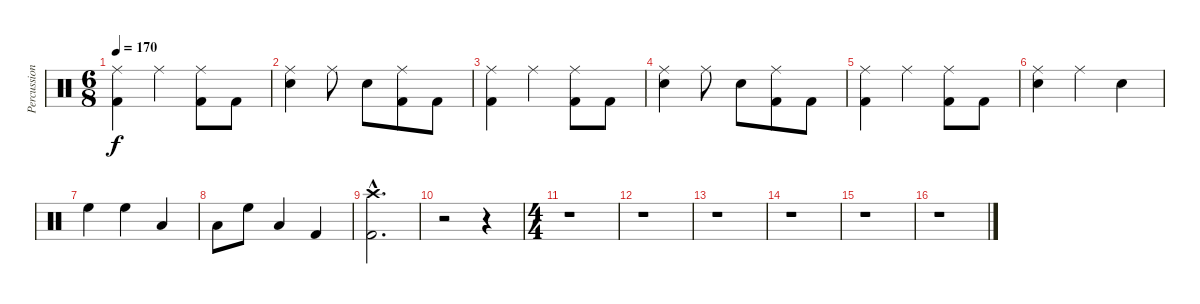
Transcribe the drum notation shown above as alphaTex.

\track ("Percussion" "Percussion") {instrument percussion}
\staff {score}
\articulation defaults
\ts (6 8)
\tempo 170
\clef neutral
\ks c
("Ride (middle)" "Kick (hit) 2").4{dy f} "Ride (middle)".4 ("Ride (middle)" "Kick (hit) 2").8 "Kick (hit) 2".8 |
("Ride (middle)" "Snare (hit) 2").4 "Ride (middle)".8 "Snare (hit) 2".8 ("Ride (middle)" "Kick (hit) 2").8 "Kick (hit) 2".8 |
("Ride (middle)" "Kick (hit) 2").4 "Ride (middle)".4 ("Ride (middle)" "Kick (hit) 2").8 "Kick (hit) 2".8 |
("Ride (middle)" "Snare (hit) 2").4 "Ride (middle)".8 "Snare (hit) 2".8 ("Ride (middle)" "Kick (hit) 2").8 "Kick (hit) 2".8 |
("Ride (middle)" "Kick (hit) 2").4 "Ride (middle)".4 ("Ride (middle)" "Kick (hit) 2").8 "Kick (hit) 2".8 |
("Ride (middle)" "Snare (hit) 2").4 "Ride (middle)".4 "Snare (hit) 2".4 |
"High Floor Tom (hit)".4 "High Floor Tom (hit)".4 "Low Tom (hit)".4 |
"Low Tom (hit)".8 "High Floor Tom (hit)".8 "Low Tom (hit)".4 "Kick (hit) 2".4 |
("Crash high (hit)"{hac} "Kick (hit) 2"{hac}).2{d} |
r.2 r.4 |
\ts (4 4)
r.1 |
r.1 |
r.1 |
r.1 |
r.1 |
r.1
